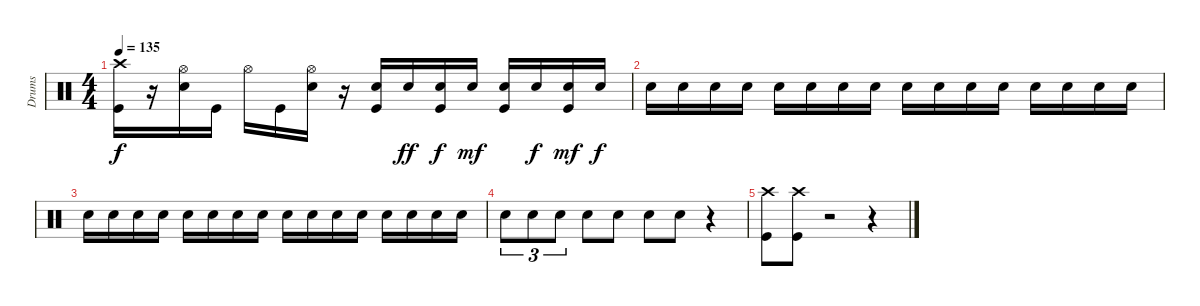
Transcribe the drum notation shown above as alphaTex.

\track ("Drums" "Drums") {instrument percussion}
\staff {score}
\articulation defaults
\ts (4 4)
\tempo 135
\clef neutral
\ks c
("Crash high (hit)" "Kick (hit)").16{dy f} r.16 ("Hi-Hat (open)" "Snare (hit) 2").16 "Kick (hit)".16 "Hi-Hat (open)".16 "Kick (hit)".16 ("Hi-Hat (open)" "Snare (hit) 2").16 r.16 ("Snare (hit) 2" "Kick (hit)").16 "Snare (hit) 2".16{dy ff} ("Snare (hit) 2" "Kick (hit)").16{dy f} "Snare (hit) 2".16{dy mf} ("Snare (hit) 2" "Kick (hit)").16 "Snare (hit) 2".16{dy f} ("Snare (hit) 2" "Kick (hit)").16{dy mf} "Snare (hit) 2".16{dy f} |
"Snare (hit) 2".16 "Snare (hit) 2".16 "Snare (hit) 2".16 "Snare (hit) 2".16 "Snare (hit) 2".16 "Snare (hit) 2".16 "Snare (hit) 2".16 "Snare (hit) 2".16 "Snare (hit) 2".16 "Snare (hit) 2".16 "Snare (hit) 2".16 "Snare (hit) 2".16 "Snare (hit) 2".16 "Snare (hit) 2".16 "Snare (hit) 2".16 "Snare (hit) 2".16 |
"Snare (hit) 2".16 "Snare (hit) 2".16 "Snare (hit) 2".16 "Snare (hit) 2".16 "Snare (hit) 2".16 "Snare (hit) 2".16 "Snare (hit) 2".16 "Snare (hit) 2".16 "Snare (hit) 2".16 "Snare (hit) 2".16 "Snare (hit) 2".16 "Snare (hit) 2".16 "Snare (hit) 2".16 "Snare (hit) 2".16 "Snare (hit) 2".16 "Snare (hit) 2".16 |
"Snare (hit) 2".8{tu (3 2)} "Snare (hit) 2".8{tu (3 2)} "Snare (hit) 2".8{tu (3 2)} "Snare (hit) 2".8 "Snare (hit) 2".8 "Snare (hit) 2".8 "Snare (hit) 2".8 r.4 |
("Crash high (hit)" "Kick (hit)").8 ("Crash high (hit)" "Kick (hit)").8 r.2 r.4
